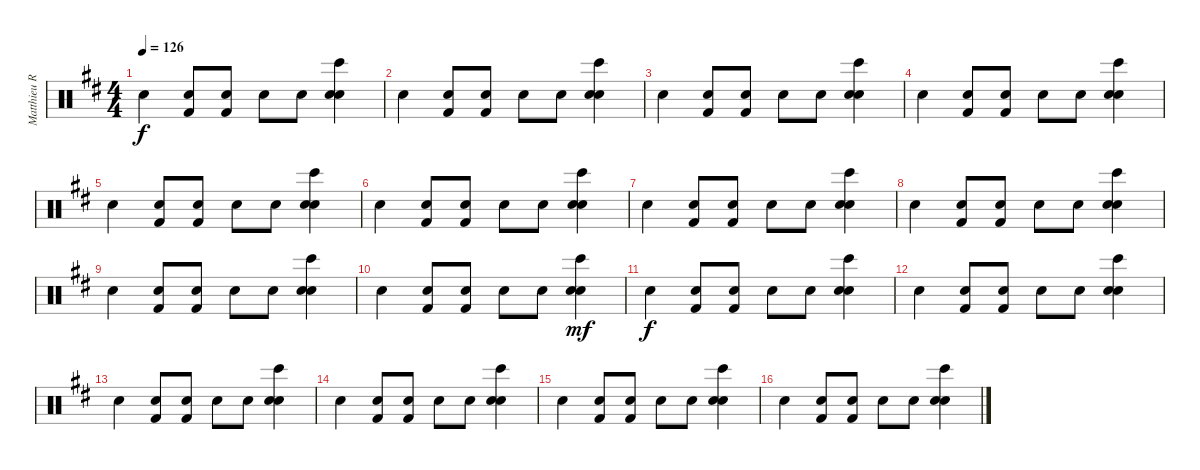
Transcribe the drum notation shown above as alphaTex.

\track ("Matthieu Rabatté (batterie)" "Matthieu R") {instrument percussion}
\staff {score}
\articulation defaults
\ts (4 4)
\tempo 126
\clef neutral
\ks d "Snare (hit) 2".4{dy f}
("Kick (hit) 2" "Electric Snare (hit)").8 ("Kick (hit) 2" "Electric Snare (hit)").8 "Snare (hit) 2".8 "Snare (hit) 2".8 ("Bongo High (hit)" "Electric Snare (hit)" "Hand Clap (hit)").4 |
"Snare (hit) 2".4 ("Kick (hit) 2" "Electric Snare (hit)").8 ("Kick (hit) 2" "Electric Snare (hit)").8 "Snare (hit) 2".8 "Snare (hit) 2".8 ("Bongo High (hit)" "Electric Snare (hit)" "Hand Clap (hit)").4 |
"Snare (hit) 2".4 ("Kick (hit) 2" "Electric Snare (hit)").8 ("Kick (hit) 2" "Electric Snare (hit)").8 "Snare (hit) 2".8 "Snare (hit) 2".8 ("Bongo High (hit)" "Electric Snare (hit)" "Hand Clap (hit)").4 |
"Snare (hit) 2".4 ("Kick (hit) 2" "Electric Snare (hit)").8 ("Kick (hit) 2" "Electric Snare (hit)").8 "Snare (hit) 2".8 "Snare (hit) 2".8 ("Bongo High (hit)" "Electric Snare (hit)" "Hand Clap (hit)").4 |
"Snare (hit) 2".4 ("Kick (hit) 2" "Electric Snare (hit)").8 ("Kick (hit) 2" "Electric Snare (hit)").8 "Snare (hit) 2".8 "Snare (hit) 2".8 ("Bongo High (hit)" "Electric Snare (hit)" "Hand Clap (hit)").4 |
"Snare (hit) 2".4 ("Kick (hit) 2" "Electric Snare (hit)").8 ("Kick (hit) 2" "Electric Snare (hit)").8 "Snare (hit) 2".8 "Snare (hit) 2".8 ("Bongo High (hit)" "Electric Snare (hit)" "Hand Clap (hit)").4 |
"Snare (hit) 2".4 ("Kick (hit) 2" "Electric Snare (hit)").8 ("Kick (hit) 2" "Electric Snare (hit)").8 "Snare (hit) 2".8 "Snare (hit) 2".8 ("Bongo High (hit)" "Electric Snare (hit)" "Hand Clap (hit)").4 |
"Snare (hit) 2".4 ("Kick (hit) 2" "Electric Snare (hit)").8 ("Kick (hit) 2" "Electric Snare (hit)").8 "Snare (hit) 2".8 "Snare (hit) 2".8 ("Bongo High (hit)" "Electric Snare (hit)" "Hand Clap (hit)").4 |
"Snare (hit) 2".4 ("Kick (hit) 2" "Electric Snare (hit)").8 ("Kick (hit) 2" "Electric Snare (hit)").8 "Snare (hit) 2".8 "Snare (hit) 2".8 ("Bongo High (hit)" "Electric Snare (hit)" "Hand Clap (hit)").4 |
"Snare (hit) 2".4 ("Kick (hit) 2" "Electric Snare (hit)").8 ("Kick (hit) 2" "Electric Snare (hit)").8 "Snare (hit) 2".8 "Snare (hit) 2".8 ("Bongo High (hit)" "Electric Snare (hit)" "Hand Clap (hit)").4{dy mf} |
"Snare (hit) 2".4{dy f} ("Kick (hit) 2" "Electric Snare (hit)").8 ("Kick (hit) 2" "Electric Snare (hit)").8 "Snare (hit) 2".8 "Snare (hit) 2".8 ("Bongo High (hit)" "Electric Snare (hit)" "Hand Clap (hit)").4 |
"Snare (hit) 2".4 ("Kick (hit) 2" "Electric Snare (hit)").8 ("Kick (hit) 2" "Electric Snare (hit)").8 "Snare (hit) 2".8 "Snare (hit) 2".8 ("Bongo High (hit)" "Electric Snare (hit)" "Hand Clap (hit)").4 |
"Snare (hit) 2".4 ("Kick (hit) 2" "Electric Snare (hit)").8 ("Kick (hit) 2" "Electric Snare (hit)").8 "Snare (hit) 2".8 "Snare (hit) 2".8 ("Bongo High (hit)" "Electric Snare (hit)" "Hand Clap (hit)").4 |
"Snare (hit) 2".4 ("Kick (hit) 2" "Electric Snare (hit)").8 ("Kick (hit) 2" "Electric Snare (hit)").8 "Snare (hit) 2".8 "Snare (hit) 2".8 ("Bongo High (hit)" "Electric Snare (hit)" "Hand Clap (hit)").4 |
"Snare (hit) 2".4 ("Kick (hit) 2" "Electric Snare (hit)").8 ("Kick (hit) 2" "Electric Snare (hit)").8 "Snare (hit) 2".8 "Snare (hit) 2".8 ("Bongo High (hit)" "Electric Snare (hit)" "Hand Clap (hit)").4 |
"Snare (hit) 2".4 ("Kick (hit) 2" "Electric Snare (hit)").8 ("Kick (hit) 2" "Electric Snare (hit)").8 "Snare (hit) 2".8 "Snare (hit) 2".8 ("Bongo High (hit)" "Electric Snare (hit)" "Hand Clap (hit)").4
